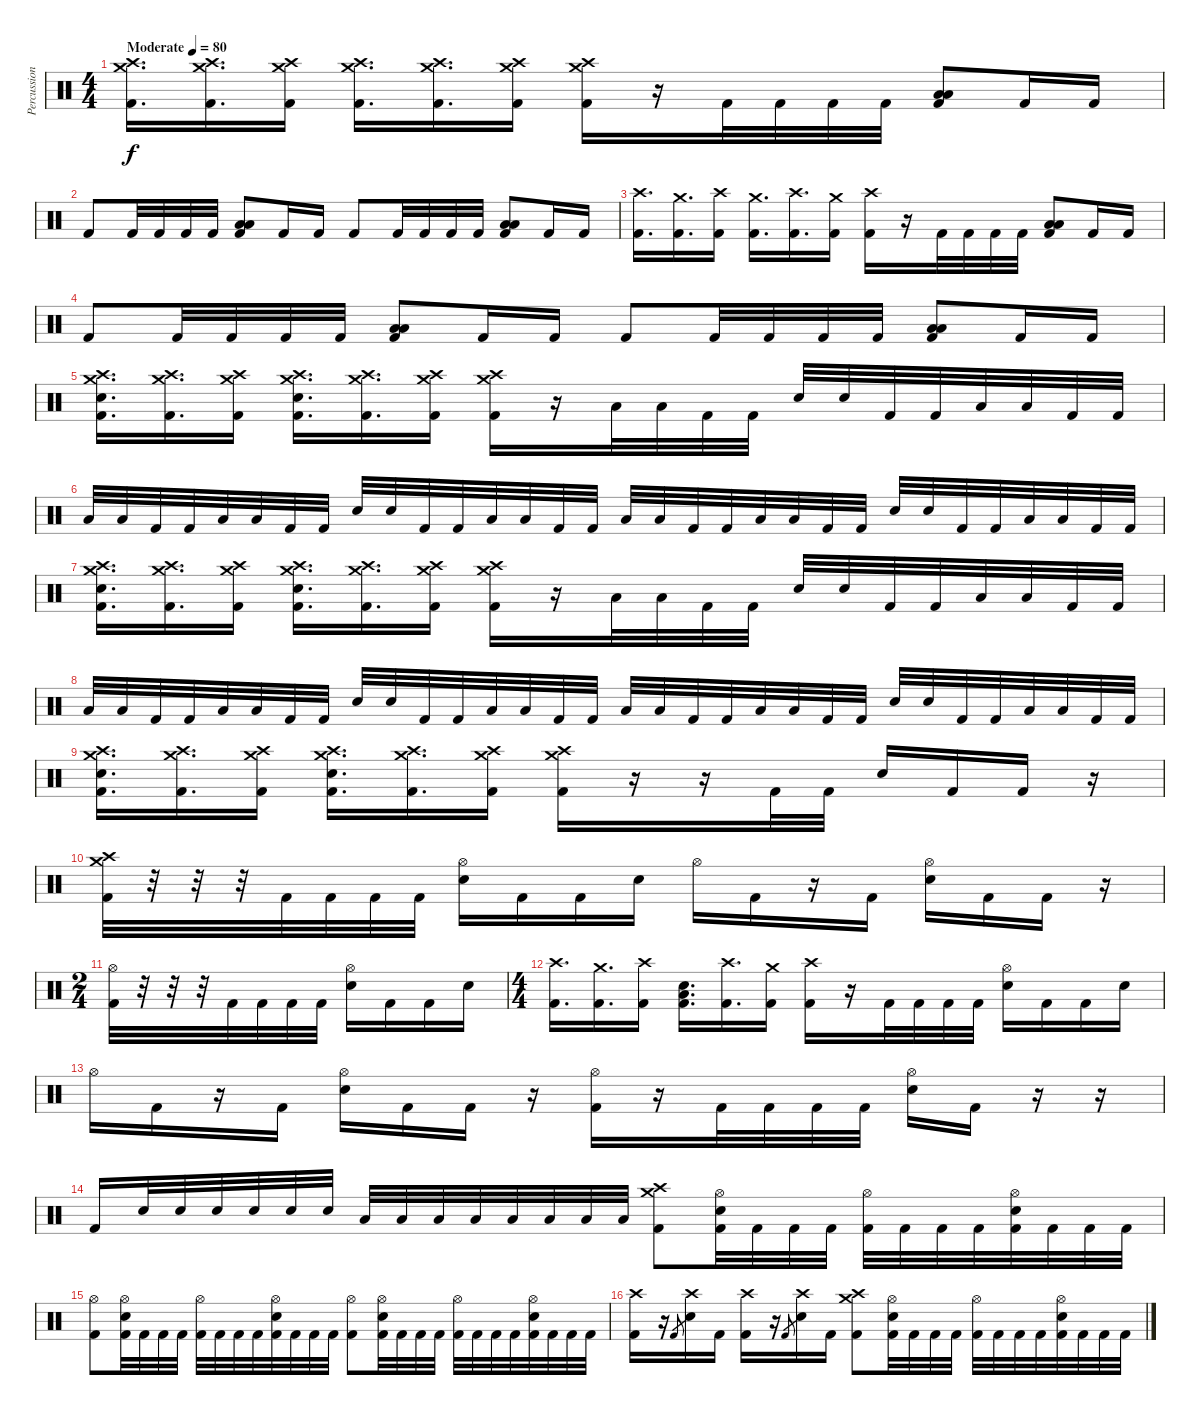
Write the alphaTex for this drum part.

\track ("Percussion" "Percussion") {instrument percussion}
\staff {score}
\articulation defaults
\ts (4 4)
\tempo (80 "Moderate")
\clef neutral
\ks c
("Crash medium (hit)" "Crash high (hit)" "Kick (hit) 2").16{d dy f} ("Crash medium (hit)" "Crash high (hit)" "Kick (hit) 2").16{d} ("Crash medium (hit)" "Crash high (hit)" "Kick (hit) 2").16 ("Crash medium (hit)" "Crash high (hit)" "Kick (hit) 2").16{d} ("Crash medium (hit)" "Crash high (hit)" "Kick (hit) 2").16{d} ("Crash medium (hit)" "Crash high (hit)" "Kick (hit) 2").16 ("Crash medium (hit)" "Crash high (hit)" "Kick (hit) 2").16 r.16 "Kick (hit) 2".32 "Kick (hit) 2".32 "Kick (hit) 2".32 "Kick (hit) 2".32 ("Low Tom (hit)" "Low Floor Tom (hit)" "Kick (hit) 2").8 "Kick (hit) 2".16 "Kick (hit) 2".16 |
"Kick (hit) 2".8 "Kick (hit) 2".32 "Kick (hit) 2".32 "Kick (hit) 2".32 "Kick (hit) 2".32 ("Low Tom (hit)" "Low Floor Tom (hit)" "Kick (hit) 2").8 "Kick (hit) 2".16 "Kick (hit) 2".16 "Kick (hit) 2".8 "Kick (hit) 2".32 "Kick (hit) 2".32 "Kick (hit) 2".32 "Kick (hit) 2".32 ("Low Tom (hit)" "Low Floor Tom (hit)" "Kick (hit) 2").8 "Kick (hit) 2".16 "Kick (hit) 2".16 |
("Crash high (hit)" "Kick (hit) 2").16{d} ("Crash medium (hit)" "Kick (hit) 2").16{d} ("Crash high (hit)" "Kick (hit) 2").16 ("Crash medium (hit)" "Kick (hit) 2").16{d} ("Crash high (hit)" "Kick (hit) 2").16{d} ("Crash medium (hit)" "Kick (hit) 2").16 ("Crash high (hit)" "Kick (hit) 2").16 r.16 "Kick (hit) 2".32 "Kick (hit) 2".32 "Kick (hit) 2".32 "Kick (hit) 2".32 ("Low Tom (hit)" "Low Floor Tom (hit)" "Kick (hit) 2").8 "Kick (hit) 2".16 "Kick (hit) 2".16 |
"Kick (hit) 2".8 "Kick (hit) 2".32 "Kick (hit) 2".32 "Kick (hit) 2".32 "Kick (hit) 2".32 ("Low Tom (hit)" "Low Floor Tom (hit)" "Kick (hit) 2").8 "Kick (hit) 2".16 "Kick (hit) 2".16 "Kick (hit) 2".8 "Kick (hit) 2".32 "Kick (hit) 2".32 "Kick (hit) 2".32 "Kick (hit) 2".32 ("Low Tom (hit)" "Low Floor Tom (hit)" "Kick (hit) 2").8 "Kick (hit) 2".16 "Kick (hit) 2".16 |
("Crash medium (hit)" "Crash high (hit)" "Electric Snare (hit)" "Kick (hit) 2").16{d} ("Crash medium (hit)" "Crash high (hit)" "Kick (hit) 2").16{d} ("Crash medium (hit)" "Crash high (hit)" "Kick (hit) 2").16 ("Crash medium (hit)" "Crash high (hit)" "Electric Snare (hit)" "Kick (hit) 2").16{d} ("Crash medium (hit)" "Crash high (hit)" "Kick (hit) 2").16{d} ("Crash medium (hit)" "Crash high (hit)" "Kick (hit) 2").16 ("Crash medium (hit)" "Crash high (hit)" "Kick (hit) 2").16 r.16 "Low Tom (hit)".32 "Low Tom (hit)".32 "Kick (hit) 2".32 "Kick (hit) 2".32 "Electric Snare (hit)".32 "Electric Snare (hit)".32 "Kick (hit) 2".32 "Kick (hit) 2".32 "Low Tom (hit)".32 "Low Tom (hit)".32 "Kick (hit) 2".32 "Kick (hit) 2".32 |
"Low Floor Tom (hit)".32 "Low Floor Tom (hit)".32 "Kick (hit) 2".32 "Kick (hit) 2".32 "Low Floor Tom (hit)".32 "Low Floor Tom (hit)".32 "Kick (hit) 2".32 "Kick (hit) 2".32 "Electric Snare (hit)".32 "Electric Snare (hit)".32 "Kick (hit) 2".32 "Kick (hit) 2".32 "Low Tom (hit)".32 "Low Tom (hit)".32 "Kick (hit) 2".32 "Kick (hit) 2".32 "Low Floor Tom (hit)".32 "Low Floor Tom (hit)".32 "Kick (hit) 2".32 "Kick (hit) 2".32 "Low Floor Tom (hit)".32 "Low Floor Tom (hit)".32 "Kick (hit) 2".32 "Kick (hit) 2".32 "Electric Snare (hit)".32 "Electric Snare (hit)".32 "Kick (hit) 2".32 "Kick (hit) 2".32 "Low Tom (hit)".32 "Low Tom (hit)".32 "Kick (hit) 2".32 "Kick (hit) 2".32 |
("Crash medium (hit)" "Crash high (hit)" "Electric Snare (hit)" "Kick (hit) 2").16{d} ("Crash medium (hit)" "Crash high (hit)" "Kick (hit) 2").16{d} ("Crash medium (hit)" "Crash high (hit)" "Kick (hit) 2").16 ("Crash medium (hit)" "Crash high (hit)" "Electric Snare (hit)" "Kick (hit) 2").16{d} ("Crash medium (hit)" "Crash high (hit)" "Kick (hit) 2").16{d} ("Crash medium (hit)" "Crash high (hit)" "Kick (hit) 2").16 ("Crash medium (hit)" "Crash high (hit)" "Kick (hit) 2").16 r.16 "Low Tom (hit)".32 "Low Tom (hit)".32 "Kick (hit) 2".32 "Kick (hit) 2".32 "Electric Snare (hit)".32 "Electric Snare (hit)".32 "Kick (hit) 2".32 "Kick (hit) 2".32 "Low Tom (hit)".32 "Low Tom (hit)".32 "Kick (hit) 2".32 "Kick (hit) 2".32 |
"Low Floor Tom (hit)".32 "Low Floor Tom (hit)".32 "Kick (hit) 2".32 "Kick (hit) 2".32 "Low Floor Tom (hit)".32 "Low Floor Tom (hit)".32 "Kick (hit) 2".32 "Kick (hit) 2".32 "Electric Snare (hit)".32 "Electric Snare (hit)".32 "Kick (hit) 2".32 "Kick (hit) 2".32 "Low Tom (hit)".32 "Low Tom (hit)".32 "Kick (hit) 2".32 "Kick (hit) 2".32 "Low Floor Tom (hit)".32 "Low Floor Tom (hit)".32 "Kick (hit) 2".32 "Kick (hit) 2".32 "Low Floor Tom (hit)".32 "Low Floor Tom (hit)".32 "Kick (hit) 2".32 "Kick (hit) 2".32 "Electric Snare (hit)".32 "Electric Snare (hit)".32 "Kick (hit) 2".32 "Kick (hit) 2".32 "Low Tom (hit)".32 "Low Tom (hit)".32 "Kick (hit) 2".32 "Kick (hit) 2".32 |
("Crash medium (hit)" "Crash high (hit)" "Electric Snare (hit)" "Kick (hit) 2").16{d} ("Crash medium (hit)" "Crash high (hit)" "Kick (hit) 2").16{d} ("Crash medium (hit)" "Crash high (hit)" "Kick (hit) 2").16 ("Crash medium (hit)" "Crash high (hit)" "Electric Snare (hit)" "Kick (hit) 2").16{d} ("Crash medium (hit)" "Crash high (hit)" "Kick (hit) 2").16{d} ("Crash medium (hit)" "Crash high (hit)" "Kick (hit) 2").16 ("Crash medium (hit)" "Crash high (hit)" "Kick (hit) 2").16 r.16 r.16 "Kick (hit) 2".32 "Kick (hit) 2".32 "Electric Snare (hit)".16 "Kick (hit) 2".16 "Kick (hit) 2".16 r.16 |
("Crash medium (hit)" "Crash high (hit)" "Kick (hit) 2").32 r.32 r.32 r.32 "Kick (hit) 2".32 "Kick (hit) 2".32 "Kick (hit) 2".32 "Kick (hit) 2".32 ("Hi-Hat (open)" "Electric Snare (hit)").16 "Kick (hit) 2".16 "Kick (hit) 2".16 "Electric Snare (hit)".16 "Hi-Hat (open)".16 "Kick (hit) 2".16 r.16 "Kick (hit) 2".16 ("Hi-Hat (open)" "Electric Snare (hit)").16 "Kick (hit) 2".16 "Kick (hit) 2".16 r.16 |
\ts (2 4)
("Hi-Hat (open)" "Kick (hit) 2").32 r.32 r.32 r.32 "Kick (hit) 2".32 "Kick (hit) 2".32 "Kick (hit) 2".32 "Kick (hit) 2".32 ("Hi-Hat (open)" "Electric Snare (hit)").16 "Kick (hit) 2".16 "Kick (hit) 2".16 "Electric Snare (hit)".16 |
\ts (4 4)
("Crash high (hit)" "Kick (hit) 2").16{d} ("Crash medium (hit)" "Kick (hit) 2").16{d} ("Crash high (hit)" "Kick (hit) 2").16 ("Low Floor Tom (hit)" "Electric Snare (hit)" "Kick (hit) 2").16{d} ("Crash high (hit)" "Kick (hit) 2").16{d} ("Crash medium (hit)" "Kick (hit) 2").16 ("Crash high (hit)" "Kick (hit) 2").16 r.16 "Kick (hit) 2".32 "Kick (hit) 2".32 "Kick (hit) 2".32 "Kick (hit) 2".32 ("Hi-Hat (open)" "Electric Snare (hit)").16 "Kick (hit) 2".16 "Kick (hit) 2".16 "Electric Snare (hit)".16 |
"Hi-Hat (open)".16 "Kick (hit) 2".16 r.16 "Kick (hit) 2".16 ("Hi-Hat (open)" "Electric Snare (hit)").16 "Kick (hit) 2".16 "Kick (hit) 2".16 r.16 ("Hi-Hat (open)" "Kick (hit) 2").16 r.16 "Kick (hit) 2".32 "Kick (hit) 2".32 "Kick (hit) 2".32 "Kick (hit) 2".32 ("Hi-Hat (open)" "Electric Snare (hit)").16 "Kick (hit) 2".16 r.16 r.16 |
"Kick (hit) 2".16 "Electric Snare (hit)".32 "Electric Snare (hit)".32 "Electric Snare (hit)".32 "Electric Snare (hit)".32 "Electric Snare (hit)".32 "Electric Snare (hit)".32 "Low Tom (hit)".32 "Low Tom (hit)".32 "Low Tom (hit)".32 "Low Tom (hit)".32 "Low Floor Tom (hit)".32 "Low Floor Tom (hit)".32 "Low Floor Tom (hit)".32 "Low Floor Tom (hit)".32 ("Crash medium (hit)" "Crash high (hit)" "Kick (hit) 2").8 ("Hi-Hat (open)" "Electric Snare (hit)" "Kick (hit) 2").32 "Kick (hit) 2".32 "Kick (hit) 2".32 "Kick (hit) 2".32 ("Hi-Hat (open)" "Kick (hit) 2").32 "Kick (hit) 2".32 "Kick (hit) 2".32 "Kick (hit) 2".32 ("Hi-Hat (open)" "Electric Snare (hit)" "Kick (hit) 2").32 "Kick (hit) 2".32 "Kick (hit) 2".32 "Kick (hit) 2".32 |
("Hi-Hat (open)" "Kick (hit) 2").8 ("Hi-Hat (open)" "Electric Snare (hit)" "Kick (hit) 2").32 "Kick (hit) 2".32 "Kick (hit) 2".32 "Kick (hit) 2".32 ("Hi-Hat (open)" "Kick (hit) 2").32 "Kick (hit) 2".32 "Kick (hit) 2".32 "Kick (hit) 2".32 ("Hi-Hat (open)" "Electric Snare (hit)" "Kick (hit) 2").32 "Kick (hit) 2".32 "Kick (hit) 2".32 "Kick (hit) 2".32 ("Hi-Hat (open)" "Kick (hit) 2").8 ("Hi-Hat (open)" "Electric Snare (hit)" "Kick (hit) 2").32 "Kick (hit) 2".32 "Kick (hit) 2".32 "Kick (hit) 2".32 ("Hi-Hat (open)" "Kick (hit) 2").32 "Kick (hit) 2".32 "Kick (hit) 2".32 "Kick (hit) 2".32 ("Hi-Hat (open)" "Electric Snare (hit)" "Kick (hit) 2").32 "Kick (hit) 2".32 "Kick (hit) 2".32 "Kick (hit) 2".32 |
("Crash high (hit)" "Kick (hit) 2").16 r.16 "Kick (hit) 2".8{gr} ("Crash high (hit)" "Electric Snare (hit)").16 "Kick (hit) 2".16 ("Crash high (hit)" "Kick (hit) 2").16 r.16 "Kick (hit) 2".8{gr} ("Crash high (hit)" "Electric Snare (hit)").16 "Kick (hit) 2".16 ("Crash medium (hit)" "Crash high (hit)" "Kick (hit) 2").8 ("Hi-Hat (open)" "Electric Snare (hit)" "Kick (hit) 2").32 "Kick (hit) 2".32 "Kick (hit) 2".32 "Kick (hit) 2".32 ("Hi-Hat (open)" "Kick (hit) 2").32 "Kick (hit) 2".32 "Kick (hit) 2".32 "Kick (hit) 2".32 ("Hi-Hat (open)" "Electric Snare (hit)" "Kick (hit) 2").32 "Kick (hit) 2".32 "Kick (hit) 2".32 "Kick (hit) 2".32
